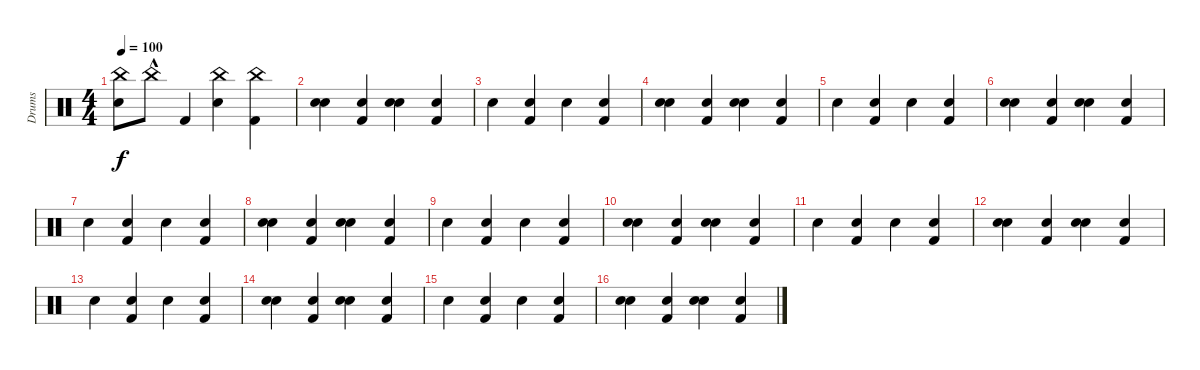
\track ("Drums" "Drums") {instrument percussion}
\staff {score}
\articulation defaults
\ts (4 4)
\tempo 100
\clef neutral
\ks c
("China (hit)" "Snare (hit) 2").8{dy f} "China (hit)"{hac}.8 "Kick (hit) 2".4 ("China (hit)" "Snare (hit) 2").4 ("China (hit)" "Kick (hit) 2").4 |
("Snare (hit)" "Snare (hit) 2").4 ("Snare (hit)" "Kick (hit) 2").4 ("Snare (hit)" "Snare (hit) 2").4 ("Snare (hit)" "Kick (hit) 2").4 |
"Snare (hit) 2".4 ("Snare (hit)" "Kick (hit) 2").4{volume 11} "Snare (hit) 2".4{volume 10} ("Snare (hit)" "Kick (hit) 2").4 |
("Snare (hit)" "Snare (hit) 2").4 ("Snare (hit)" "Kick (hit) 2").4{volume 10} ("Snare (hit)" "Snare (hit) 2").4 ("Snare (hit)" "Kick (hit) 2").4{volume 10} |
"Snare (hit) 2".4 ("Snare (hit)" "Kick (hit) 2").4 "Snare (hit) 2".4{volume 10} ("Snare (hit)" "Kick (hit) 2").4 |
("Snare (hit)" "Snare (hit) 2").4 ("Snare (hit)" "Kick (hit) 2").4 ("Snare (hit)" "Snare (hit) 2").4 ("Snare (hit)" "Kick (hit) 2").4 |
"Snare (hit) 2".4 ("Snare (hit)" "Kick (hit) 2").4 "Snare (hit) 2".4 ("Snare (hit)" "Kick (hit) 2").4{volume 10} |
("Snare (hit)" "Snare (hit) 2").4{volume 10} ("Snare (hit)" "Kick (hit) 2").4{volume 9} ("Snare (hit)" "Snare (hit) 2").4 ("Snare (hit)" "Kick (hit) 2").4 |
"Snare (hit) 2".4 ("Snare (hit)" "Kick (hit) 2").4 "Snare (hit) 2".4 ("Snare (hit)" "Kick (hit) 2").4 |
("Snare (hit)" "Snare (hit) 2").4 ("Snare (hit)" "Kick (hit) 2").4 ("Snare (hit)" "Snare (hit) 2").4 ("Snare (hit)" "Kick (hit) 2").4 |
"Snare (hit) 2".4 ("Snare (hit)" "Kick (hit) 2").4 "Snare (hit) 2".4 ("Snare (hit)" "Kick (hit) 2").4 |
("Snare (hit)" "Snare (hit) 2").4{volume 10} ("Snare (hit)" "Kick (hit) 2").4{volume 9} ("Snare (hit)" "Snare (hit) 2").4{volume 9} ("Snare (hit)" "Kick (hit) 2").4{volume 9} |
"Snare (hit) 2".4 ("Snare (hit)" "Kick (hit) 2").4 "Snare (hit) 2".4 ("Snare (hit)" "Kick (hit) 2").4 |
("Snare (hit)" "Snare (hit) 2").4 ("Snare (hit)" "Kick (hit) 2").4 ("Snare (hit)" "Snare (hit) 2").4 ("Snare (hit)" "Kick (hit) 2").4 |
"Snare (hit) 2".4 ("Snare (hit)" "Kick (hit) 2").4 "Snare (hit) 2".4 ("Snare (hit)" "Kick (hit) 2").4 |
("Snare (hit)" "Snare (hit) 2").4 ("Snare (hit)" "Kick (hit) 2").4 ("Snare (hit)" "Snare (hit) 2").4 ("Snare (hit)" "Kick (hit) 2").4
